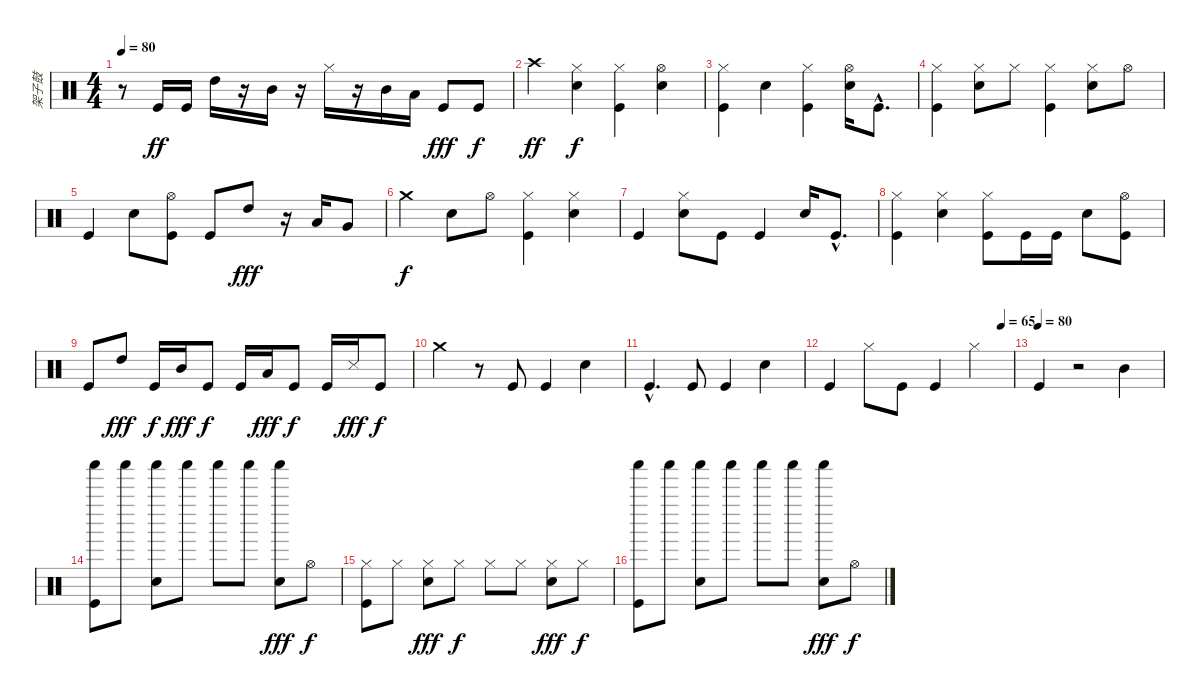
\track ("架子鼓" "架子鼓") {instrument percussion}
\staff {score}
\articulation defaults
\ts (4 4)
\tempo 80
\clef neutral
\ks c
r.8{dy f balance 8} "Kick (hit)".16{dy ff} "Kick (hit)".16 "High Tom (hit)".16 r.16 "Mid Tom (hit)".16 r.16 "Hi-Hat (closed)".16 r.16 "Mid Tom (hit)".16 "Low Tom (hit)".16 "Kick (hit)".8{dy fff} "Kick (hit)".8{dy f} |
"Crash high (hit)".4{dy ff} ("Hi-Hat (closed)" "Snare (hit) 2").4{dy f} ("Hi-Hat (closed)" "Kick (hit)").4 ("Hi-Hat (open)" "Snare (hit) 2").4 |
("Hi-Hat (closed)" "Kick (hit)").4 "Snare (hit) 2".4 ("Hi-Hat (closed)" "Kick (hit)").4 ("Hi-Hat (open)" "Snare (hit) 2").16 "Kick (hit)"{hac}.8{d} |
("Hi-Hat (closed)" "Kick (hit)").4 ("Hi-Hat (closed)" "Snare (hit) 2").8 "Hi-Hat (closed)".8 ("Hi-Hat (closed)" "Kick (hit)").4 ("Hi-Hat (closed)" "Snare (hit) 2").8 "Hi-Hat (open)".8 |
"Kick (hit)".4 "Snare (hit) 2".8 ("Hi-Hat (open)" "Kick (hit)").8 "Kick (hit)".8 "High Tom (hit)".8{dy fff} r.16 "Low Tom (hit)".16 "Very Low Tom (hit)".8 |
"Crash medium (hit)".4{dy f} "Snare (hit) 2".8 "Hi-Hat (open)".8 ("Hi-Hat (closed)" "Kick (hit)").4 ("Hi-Hat (closed)" "Snare (hit) 2").4 |
"Kick (hit)".4 ("Hi-Hat (closed)" "Snare (hit) 2").8 "Kick (hit)".8 "Kick (hit)".4 "Snare (hit) 2".16 "Kick (hit)"{hac}.8{d} |
("Hi-Hat (closed)" "Kick (hit)").4 ("Hi-Hat (closed)" "Snare (hit) 2").4 ("Hi-Hat (closed)" "Kick (hit)").8 "Kick (hit)".16 "Kick (hit)".16 "Snare (hit) 2".8 ("Hi-Hat (open)" "Kick (hit)").8 |
"Kick (hit)".8{volume 16} "High Tom (hit)".8{dy fff} "Kick (hit)".16{dy f} "Mid Tom (hit)".16{dy fff} "Kick (hit)".8{dy f} "Kick (hit)".16 "Low Tom (hit)".16{dy fff} "Kick (hit)".8{dy f} "Kick (hit)".16 "Metronome (hit)".16{dy fff} "Kick (hit)".8{dy f} |
"Crash medium (hit)".4 r.8 "Kick (hit)".8 "Kick (hit)".4 "Snare (hit)".4{balance 15} |
"Kick (hit)"{hac}.4{d balance 8} "Kick (hit)".8 "Kick (hit)".4 "Snare (hit)".4{balance 14} |
\tempo (65 0.9375)
"Kick (hit)".4{balance 8} "Hi-Hat (closed)".8 "Kick (hit)".8 "Kick (hit)".4 "Hi-Hat (closed)".4 |
\tempo (80)
"Kick (hit)".4 r.2 "Mid Tom (hit)".4{volume 15 balance 14} |
("Shaker (hit)" "Kick (hit)").8{volume 15 balance 8} "Shaker (hit)".8 ("Shaker (hit)" "Snare (hit)").8 "Shaker (hit)".8 "Shaker (hit)".8 "Shaker (hit)".8 ("Shaker (hit)" "Snare (hit)").8{dy fff} "Hi-Hat (open)".8{dy f} |
("Hi-Hat (closed)" "Kick (hit)").8 "Hi-Hat (closed)".8 ("Hi-Hat (closed)" "Snare (hit)").8{dy fff} "Hi-Hat (closed)".8{dy f} "Hi-Hat (closed)".8 "Hi-Hat (closed)".8 ("Hi-Hat (closed)" "Snare (hit)").8{dy fff} "Hi-Hat (closed)".8{dy f} |
("Shaker (hit)" "Kick (hit)").8 "Shaker (hit)".8 ("Shaker (hit)" "Snare (hit)").8 "Shaker (hit)".8 "Shaker (hit)".8 "Shaker (hit)".8 ("Shaker (hit)" "Snare (hit)").8{dy fff} "Hi-Hat (open)".8{dy f}
